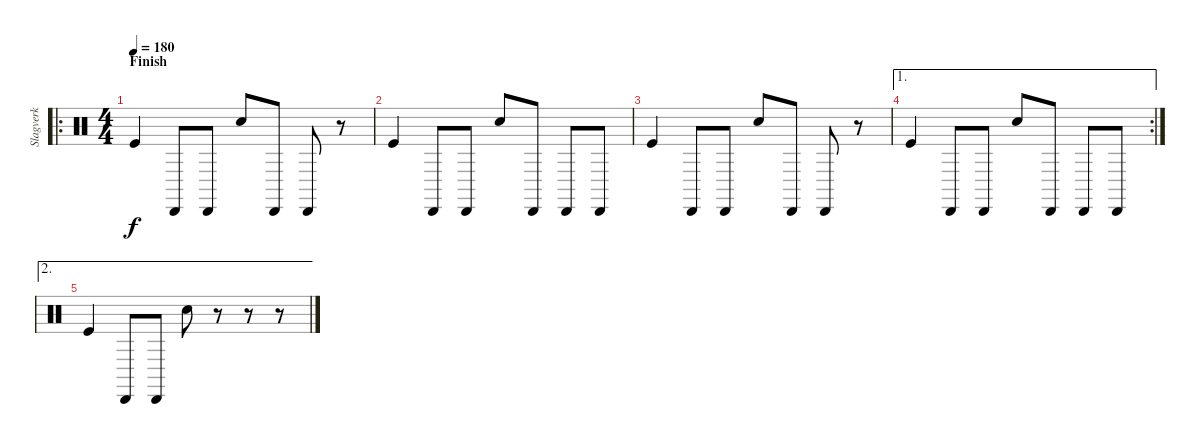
\track ("Slagverk" "Slagverk") {instrument percussion}
\staff {score}
\articulation defaults
\ro
\ts (4 4)
\section ("" "Finish")
\tempo 180
\clef neutral
\ks c "Kick (hit)".4{dy f} "Cabasa (hit)".8 "Cabasa (hit)".8 "Snare (hit) 2".8 "Cabasa (hit)".8 "Cabasa (hit)".8
r.8 |
"Kick (hit)".4 "Cabasa (hit)".8 "Cabasa (hit)".8 "Snare (hit) 2".8 "Cabasa (hit)".8 "Cabasa (hit)".8 "Cabasa (hit)".8 |
"Kick (hit)".4 "Cabasa (hit)".8 "Cabasa (hit)".8 "Snare (hit) 2".8 "Cabasa (hit)".8 "Cabasa (hit)".8 r.8 |
\ae 1
\rc 2 "Kick (hit)".4 "Cabasa (hit)".8 "Cabasa (hit)".8 "Snare (hit) 2".8 "Cabasa (hit)".8 "Cabasa (hit)".8 "Cabasa (hit)".8
|
\ae 2 "Kick (hit)".4 "Cabasa (hit)".8 "Cabasa (hit)".8 "Snare (hit) 2".8
r.8 r.8 r.8
